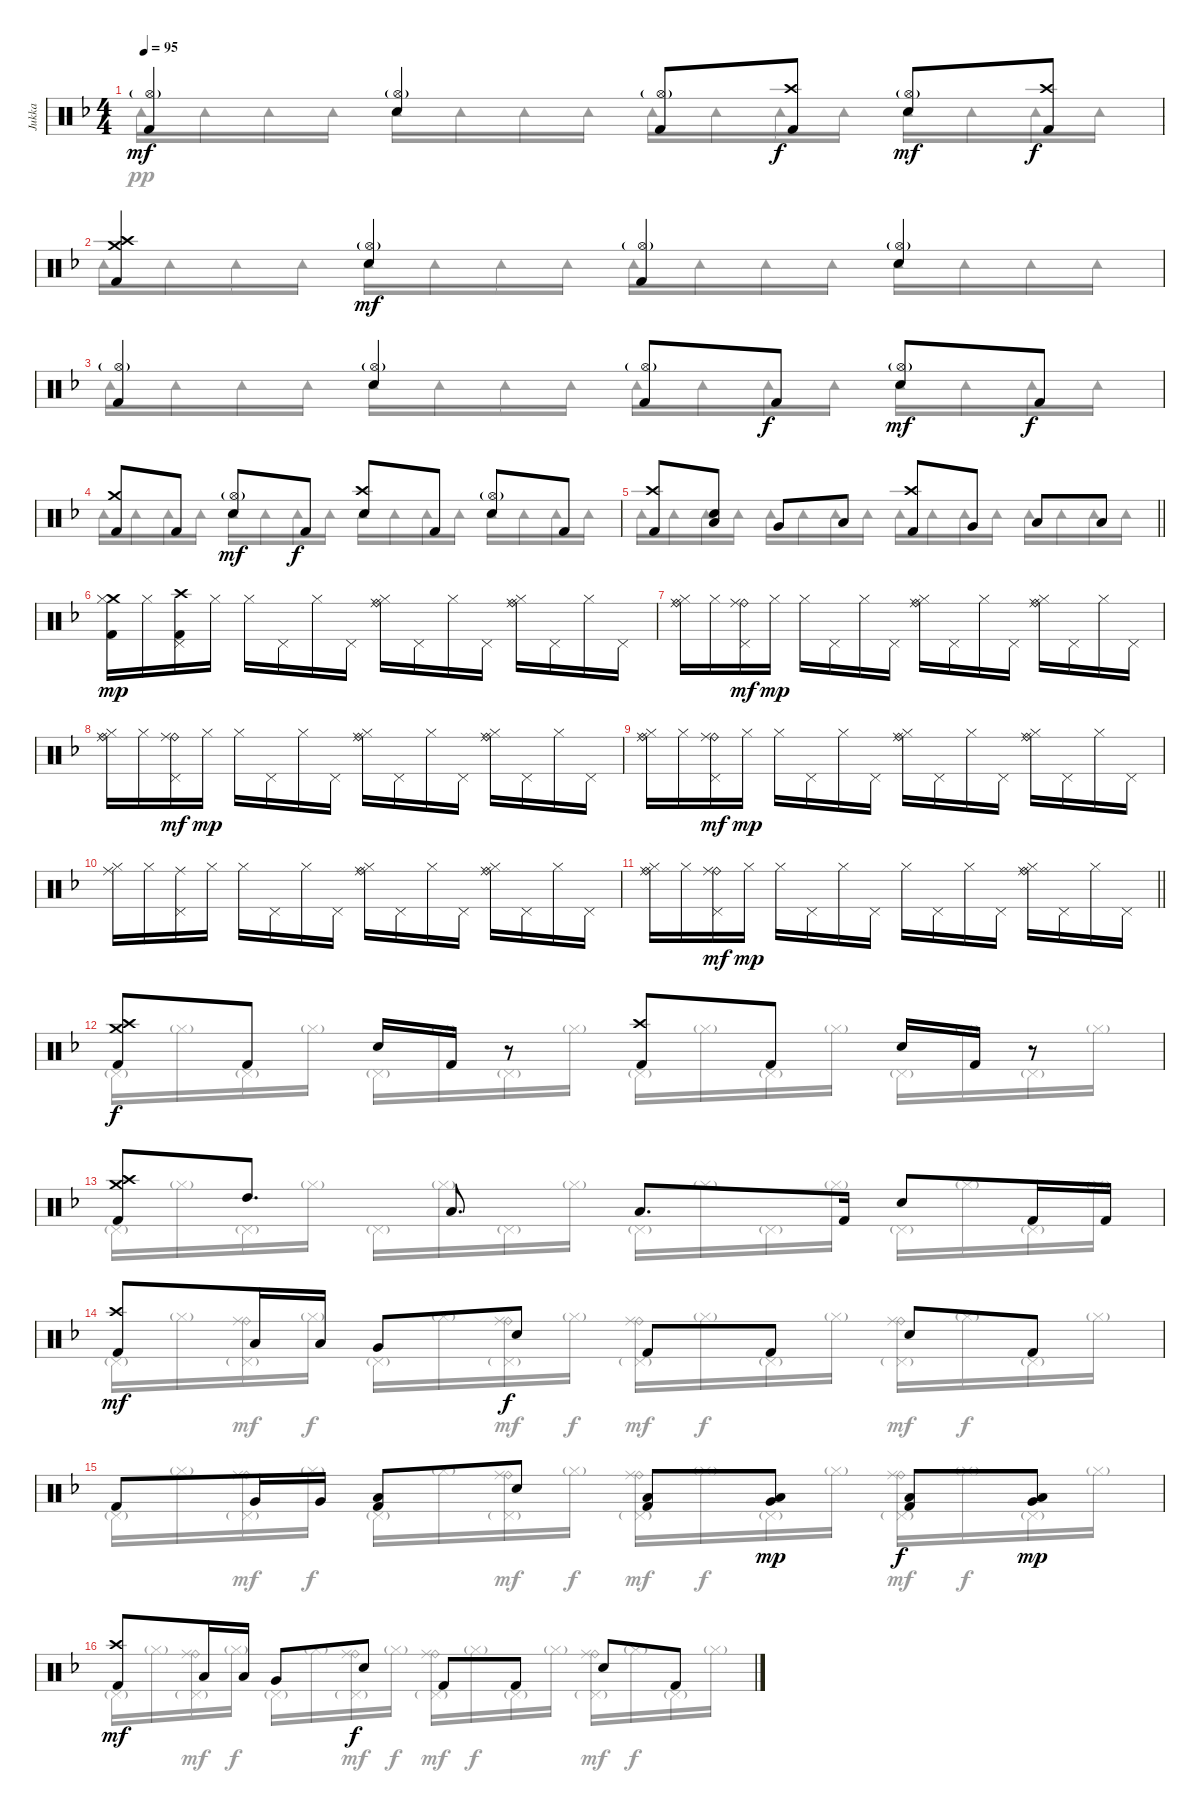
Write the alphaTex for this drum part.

\track ("Jukka" "Jukka") {instrument percussion}
\staff {score}
\articulation defaults
\voice
\ts (4 4)
\tempo 95
\clef neutral
\ks f
("Hi-Hat (open)"{g} "Kick (hit) 2").4{dy mf} ("Hi-Hat (open)"{g} "Electric Snare (hit)").4 ("Hi-Hat (open)"{g} "Kick (hit) 2").8 ("Crash high (hit)" "Kick (hit) 2").8{dy f} ("Hi-Hat (open)"{g} "Electric Snare (hit)").8{dy mf} ("Crash high (hit)" "Kick (hit) 2").8{dy f} |
("Crash high (hit)" "Crash medium (hit)" "Kick (hit) 2").4 ("Hi-Hat (open)"{g} "Electric Snare (hit)").4{dy mf} ("Hi-Hat (open)"{g} "Kick (hit) 2").4 ("Hi-Hat (open)"{g} "Electric Snare (hit)").4 |
("Hi-Hat (open)"{g} "Kick (hit) 2").4 ("Hi-Hat (open)"{g} "Electric Snare (hit)").4 ("Hi-Hat (open)"{g} "Kick (hit) 2").8 "Kick (hit) 2".8{dy f} ("Hi-Hat (open)"{g} "Electric Snare (hit)").8{dy mf} "Kick (hit) 2".8{dy f} |
("Crash medium (hit)" "Kick (hit) 2").8 "Kick (hit) 2".8 ("Hi-Hat (open)"{g} "Electric Snare (hit)").8{dy mf} "Kick (hit) 2".8{dy f} ("Crash high (hit)" "Electric Snare (hit)").8 "Kick (hit) 2".8 ("Hi-Hat (open)"{g} "Electric Snare (hit)").8 "Kick (hit) 2".8 |
\barLineRight lightlight
("Crash high (hit)" "Kick (hit) 2").8 ("Electric Snare (hit)" "Low Tom (hit)").8 "Very Low Tom (hit)".8 "Low Floor Tom (hit)".8 ("Crash high (hit)" "Kick (hit) 2").8 "Very Low Tom (hit)".8 "Low Floor Tom (hit)".8 "Low Floor Tom (hit)".8 |
("Crash medium (hit)" "Hi-Hat (closed)" "Kick (hit) 2").16{dy mp} "Hi-Hat (closed)".16 ("Crash high (hit)" "Pedal Hi-Hat (hit)" "Kick (hit) 2").16 "Hi-Hat (closed)".16 "Hi-Hat (closed)".16 "Pedal Hi-Hat (hit)".16 "Hi-Hat (closed)".16 "Pedal Hi-Hat (hit)".16 ("Hi-Hat (closed)" "Ride (bell)" "Ride (middle)").16 "Pedal Hi-Hat (hit)".16 "Hi-Hat (closed)".16 "Pedal Hi-Hat (hit)".16 ("Hi-Hat (closed)" "Ride (bell)" "Ride (middle)").16 "Pedal Hi-Hat (hit)".16 "Hi-Hat (closed)".16 "Pedal Hi-Hat (hit)".16 |
("Hi-Hat (closed)" "Ride (bell)" "Ride (middle)").16 "Hi-Hat (closed)".16 ("Pedal Hi-Hat (hit)" "Ride (bell)" "Ride (middle)").16{dy mf} "Hi-Hat (closed)".16{dy mp} "Hi-Hat (closed)".16 "Pedal Hi-Hat (hit)".16 "Hi-Hat (closed)".16 "Pedal Hi-Hat (hit)".16 ("Hi-Hat (closed)" "Ride (bell)" "Ride (middle)").16 "Pedal Hi-Hat (hit)".16 "Hi-Hat (closed)".16 "Pedal Hi-Hat (hit)".16 ("Hi-Hat (closed)" "Ride (bell)" "Ride (middle)").16 "Pedal Hi-Hat (hit)".16 "Hi-Hat (closed)".16 "Pedal Hi-Hat (hit)".16 |
("Hi-Hat (closed)" "Ride (bell)" "Ride (middle)").16 "Hi-Hat (closed)".16 ("Pedal Hi-Hat (hit)" "Ride (bell)" "Ride (middle)").16{dy mf} "Hi-Hat (closed)".16{dy mp} "Hi-Hat (closed)".16 "Pedal Hi-Hat (hit)".16 "Hi-Hat (closed)".16 "Pedal Hi-Hat (hit)".16 ("Hi-Hat (closed)" "Ride (bell)" "Ride (middle)").16 "Pedal Hi-Hat (hit)".16 "Hi-Hat (closed)".16 "Pedal Hi-Hat (hit)".16 ("Hi-Hat (closed)" "Ride (bell)" "Ride (middle)").16 "Pedal Hi-Hat (hit)".16 "Hi-Hat (closed)".16 "Pedal Hi-Hat (hit)".16 |
("Hi-Hat (closed)" "Ride (bell)" "Ride (middle)").16 "Hi-Hat (closed)".16 ("Pedal Hi-Hat (hit)" "Ride (bell)" "Ride (middle)").16{dy mf} "Hi-Hat (closed)".16{dy mp} "Hi-Hat (closed)".16 "Pedal Hi-Hat (hit)".16 "Hi-Hat (closed)".16 "Pedal Hi-Hat (hit)".16 ("Hi-Hat (closed)" "Ride (bell)" "Ride (middle)").16 "Pedal Hi-Hat (hit)".16 "Hi-Hat (closed)".16 "Pedal Hi-Hat (hit)".16 ("Hi-Hat (closed)" "Ride (bell)" "Ride (middle)").16 "Pedal Hi-Hat (hit)".16 "Hi-Hat (closed)".16 "Pedal Hi-Hat (hit)".16 |
("Hi-Hat (closed)" "Ride (middle)").16 "Hi-Hat (closed)".16 ("Pedal Hi-Hat (hit)" "Ride (middle)").16 "Hi-Hat (closed)".16 "Hi-Hat (closed)".16 "Pedal Hi-Hat (hit)".16 "Hi-Hat (closed)".16 "Pedal Hi-Hat (hit)".16 ("Hi-Hat (closed)" "Ride (bell)" "Ride (middle)").16 "Pedal Hi-Hat (hit)".16 "Hi-Hat (closed)".16 "Pedal Hi-Hat (hit)".16 ("Hi-Hat (closed)" "Ride (bell)" "Ride (middle)").16 "Pedal Hi-Hat (hit)".16 "Hi-Hat (closed)".16 "Pedal Hi-Hat (hit)".16 |
\barLineRight lightlight
("Hi-Hat (closed)" "Ride (bell)" "Ride (middle)").16 "Hi-Hat (closed)".16 ("Pedal Hi-Hat (hit)" "Ride (bell)" "Ride (middle)").16{dy mf} "Hi-Hat (closed)".16{dy mp} "Hi-Hat (closed)".16 "Pedal Hi-Hat (hit)".16 "Hi-Hat (closed)".16 "Pedal Hi-Hat (hit)".16 "Hi-Hat (closed)".16 "Pedal Hi-Hat (hit)".16 "Hi-Hat (closed)".16 "Pedal Hi-Hat (hit)".16 ("Hi-Hat (closed)" "Ride (bell)" "Ride (middle)").16 "Pedal Hi-Hat (hit)".16 "Hi-Hat (closed)".16 "Pedal Hi-Hat (hit)".16 |
("Crash high (hit)" "Crash medium (hit)" "Kick (hit) 2").8{dy f} "Kick (hit) 2".8 "Electric Snare (hit)".16 "Kick (hit) 2".16 r.8 ("Crash high (hit)" "Kick (hit) 2").8 "Kick (hit) 2".8 "Electric Snare (hit)".16 "Kick (hit) 2".16 r.8 |
("Crash high (hit)" "Crash medium (hit)" "Kick (hit) 2").8 "High Tom (hit)".8{d} "Low Tom (hit)".8{d} "Low Floor Tom (hit)".8{d} "Kick (hit) 2".16 "Electric Snare (hit)".8 "Kick (hit) 2".16 "Kick (hit) 2".16 |
("Crash high (hit)" "Kick (hit) 2").8{dy mf} "Low Tom (hit)".16 "Low Tom (hit)".16 "Very Low Tom (hit)".8 "Electric Snare (hit)".8{dy f} "Kick (hit) 2".8 "Kick (hit) 2".8 "Electric Snare (hit)".8 "Kick (hit) 2".8 |
"Kick (hit) 2".8 "Very Low Tom (hit)".16 "Very Low Tom (hit)".16 ("Low Floor Tom (hit)" "Kick (hit) 2").8 "Electric Snare (hit)".8 ("Low Floor Tom (hit)" "Kick (hit) 2").8 ("Very Low Tom (hit)" "Low Floor Tom (hit)").8{dy mp} ("Low Floor Tom (hit)" "Kick (hit) 2").8{dy f} ("Very Low Tom (hit)" "Low Floor Tom (hit)").8{dy mp} |
("Crash high (hit)" "Kick (hit) 2").8{dy mf} "Low Tom (hit)".16 "Low Tom (hit)".16 "Very Low Tom (hit)".8 "Electric Snare (hit)".8{dy f} "Kick (hit) 2".8 "Kick (hit) 2".8 "Electric Snare (hit)".8 "Kick (hit) 2".8
\voice
\clef neutral
\ottava regular
\simile none
\ks f "Tambourine (hit)".16{dy pp} "Tambourine (hit)".16 "Tambourine (hit)".16 "Tambourine (hit)".16 "Tambourine (hit)".16 "Tambourine (hit)".16 "Tambourine (hit)".16 "Tambourine (hit)".16 "Tambourine (hit)".16 "Tambourine (hit)".16 "Tambourine (hit)".16 "Tambourine (hit)".16 "Tambourine (hit)".16 "Tambourine (hit)".16 "Tambourine (hit)".16 "Tambourine (hit)".16
|
"Tambourine (hit)".16 "Tambourine (hit)".16 "Tambourine (hit)".16 "Tambourine (hit)".16 "Tambourine (hit)".16 "Tambourine (hit)".16 "Tambourine (hit)".16 "Tambourine (hit)".16 "Tambourine (hit)".16 "Tambourine (hit)".16 "Tambourine (hit)".16 "Tambourine (hit)".16 "Tambourine (hit)".16 "Tambourine (hit)".16 "Tambourine (hit)".16 "Tambourine (hit)".16 |
"Tambourine (hit)".16 "Tambourine (hit)".16 "Tambourine (hit)".16 "Tambourine (hit)".16 "Tambourine (hit)".16 "Tambourine (hit)".16 "Tambourine (hit)".16 "Tambourine (hit)".16 "Tambourine (hit)".16 "Tambourine (hit)".16 "Tambourine (hit)".16 "Tambourine (hit)".16 "Tambourine (hit)".16 "Tambourine (hit)".16 "Tambourine (hit)".16 "Tambourine (hit)".16 |
"Tambourine (hit)".16 "Tambourine (hit)".16 "Tambourine (hit)".16 "Tambourine (hit)".16 "Tambourine (hit)".16 "Tambourine (hit)".16 "Tambourine (hit)".16 "Tambourine (hit)".16 "Tambourine (hit)".16 "Tambourine (hit)".16 "Tambourine (hit)".16 "Tambourine (hit)".16 "Tambourine (hit)".16 "Tambourine (hit)".16 "Tambourine (hit)".16 "Tambourine (hit)".16 |
\barLineRight lightlight "Tambourine (hit)".16 "Tambourine (hit)".16 "Tambourine (hit)".16 "Tambourine (hit)".16 "Tambourine (hit)".16 "Tambourine (hit)".16 "Tambourine (hit)".16 "Tambourine (hit)".16 "Tambourine (hit)".16 "Tambourine (hit)".16 "Tambourine (hit)".16 "Tambourine (hit)".16 "Tambourine (hit)".16 "Tambourine (hit)".16 "Tambourine (hit)".16 "Tambourine (hit)".16
|
|
|
|
|
|
\barLineRight lightlight
|
"Pedal Hi-Hat (hit)"{g}.16{dy f} "Hi-Hat (closed)"{g}.16 "Pedal Hi-Hat (hit)"{g}.16 "Hi-Hat (closed)"{g}.16 "Pedal Hi-Hat (hit)"{g}.16 "Hi-Hat (closed)"{g}.16 "Pedal Hi-Hat (hit)"{g}.16 "Hi-Hat (closed)"{g}.16 "Pedal Hi-Hat (hit)"{g}.16 "Hi-Hat (closed)"{g}.16 "Pedal Hi-Hat (hit)"{g}.16 "Hi-Hat (closed)"{g}.16 "Pedal Hi-Hat (hit)"{g}.16 "Hi-Hat (closed)"{g}.16 "Pedal Hi-Hat (hit)"{g}.16 "Hi-Hat (closed)"{g}.16 |
"Pedal Hi-Hat (hit)"{g}.16 "Hi-Hat (closed)"{g}.16 "Pedal Hi-Hat (hit)"{g}.16 "Hi-Hat (closed)"{g}.16 "Pedal Hi-Hat (hit)"{g}.16 "Hi-Hat (closed)"{g}.16 "Pedal Hi-Hat (hit)"{g}.16 "Hi-Hat (closed)"{g}.16 "Pedal Hi-Hat (hit)"{g}.16 "Hi-Hat (closed)"{g}.16 "Pedal Hi-Hat (hit)"{g}.16 "Hi-Hat (closed)"{g}.16 "Pedal Hi-Hat (hit)"{g}.16 "Hi-Hat (closed)"{g}.16 "Pedal Hi-Hat (hit)"{g}.16 "Hi-Hat (closed)"{g}.16 |
"Pedal Hi-Hat (hit)"{g}.16 "Hi-Hat (closed)"{g}.16 ("Pedal Hi-Hat (hit)"{g} "Ride (bell)" "Ride (middle)").16{dy mf} "Hi-Hat (closed)"{g}.16{dy f} "Pedal Hi-Hat (hit)"{g}.16 "Hi-Hat (closed)"{g}.16 ("Pedal Hi-Hat (hit)"{g} "Ride (bell)" "Ride (middle)").16{dy mf} "Hi-Hat (closed)"{g}.16{dy f} ("Pedal Hi-Hat (hit)"{g} "Ride (bell)" "Ride (middle)").16{dy mf} "Hi-Hat (closed)"{g}.16{dy f} "Pedal Hi-Hat (hit)"{g}.16 "Hi-Hat (closed)"{g}.16 ("Pedal Hi-Hat (hit)"{g} "Ride (bell)" "Ride (middle)").16{dy mf} "Hi-Hat (closed)"{g}.16{dy f} "Pedal Hi-Hat (hit)"{g}.16 "Hi-Hat (closed)"{g}.16 |
"Pedal Hi-Hat (hit)"{g}.16 "Hi-Hat (closed)"{g}.16 ("Pedal Hi-Hat (hit)"{g} "Ride (bell)" "Ride (middle)").16{dy mf} "Hi-Hat (closed)"{g}.16{dy f} "Pedal Hi-Hat (hit)"{g}.16 "Hi-Hat (closed)"{g}.16 ("Pedal Hi-Hat (hit)"{g} "Ride (bell)" "Ride (middle)").16{dy mf} "Hi-Hat (closed)"{g}.16{dy f} ("Pedal Hi-Hat (hit)"{g} "Ride (bell)" "Ride (middle)").16{dy mf} "Hi-Hat (closed)"{g}.16{dy f} "Pedal Hi-Hat (hit)"{g}.16 "Hi-Hat (closed)"{g}.16 ("Pedal Hi-Hat (hit)"{g} "Ride (bell)" "Ride (middle)").16{dy mf} "Hi-Hat (closed)"{g}.16{dy f} "Pedal Hi-Hat (hit)"{g}.16 "Hi-Hat (closed)"{g}.16 |
"Pedal Hi-Hat (hit)"{g}.16 "Hi-Hat (closed)"{g}.16 ("Pedal Hi-Hat (hit)"{g} "Ride (bell)" "Ride (middle)").16{dy mf} "Hi-Hat (closed)"{g}.16{dy f} "Pedal Hi-Hat (hit)"{g}.16 "Hi-Hat (closed)"{g}.16 ("Pedal Hi-Hat (hit)"{g} "Ride (bell)" "Ride (middle)").16{dy mf} "Hi-Hat (closed)"{g}.16{dy f} ("Pedal Hi-Hat (hit)"{g} "Ride (bell)" "Ride (middle)").16{dy mf} "Hi-Hat (closed)"{g}.16{dy f} "Pedal Hi-Hat (hit)"{g}.16 "Hi-Hat (closed)"{g}.16 ("Pedal Hi-Hat (hit)"{g} "Ride (bell)" "Ride (middle)").16{dy mf} "Hi-Hat (closed)"{g}.16{dy f} "Pedal Hi-Hat (hit)"{g}.16 "Hi-Hat (closed)"{g}.16
